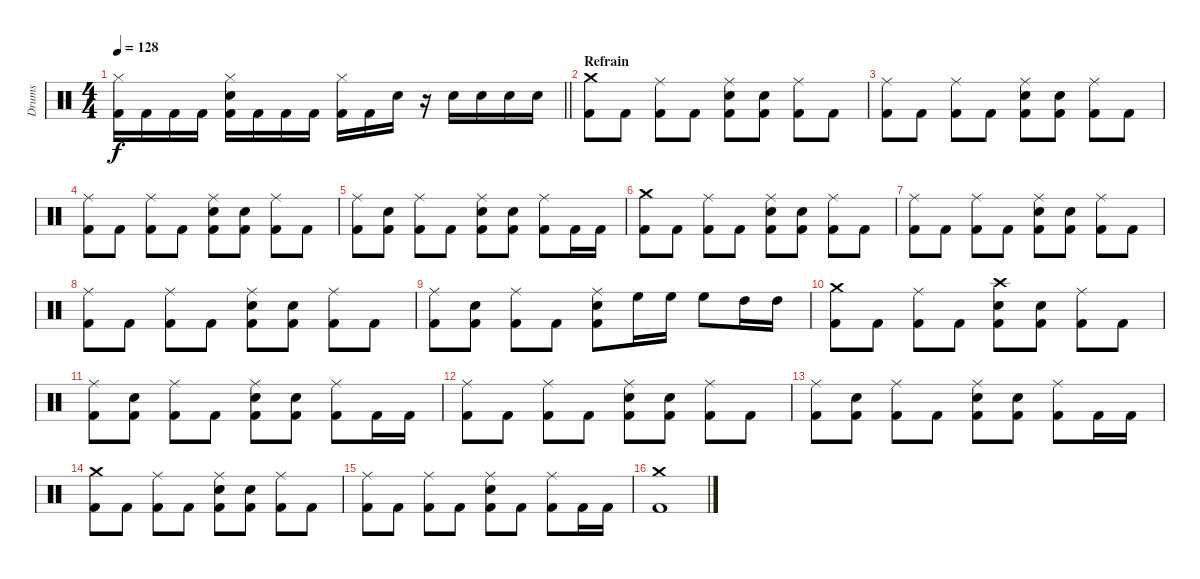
\track ("Drums" "Drums") {instrument percussion}
\staff {score}
\articulation defaults
\ts (4 4)
\tempo 128
\clef neutral
\barLineRight lightlight
\ks c
("Hi-Hat (closed)" "Kick (hit) 2").16{dy f} "Kick (hit) 2".16 "Kick (hit) 2".16 "Kick (hit) 2".16 ("Hi-Hat (closed)" "Snare (hit) 2" "Kick (hit) 2").16 "Kick (hit) 2".16 "Kick (hit) 2".16 "Kick (hit) 2".16 ("Hi-Hat (closed)" "Kick (hit) 2").16 "Kick (hit) 2".16 "Snare (hit) 2".16 r.16 "Snare (hit) 2".16 "Snare (hit) 2".16 "Snare (hit) 2".16 "Snare (hit) 2".16 |
\section ("" "Refrain")
("Crash medium (hit)" "Kick (hit) 2").8 "Kick (hit) 2".8 ("Ride (middle)" "Kick (hit) 2").8 "Kick (hit) 2".8 ("Ride (middle)" "Snare (hit) 2" "Kick (hit) 2").8 ("Snare (hit) 2" "Kick (hit) 2").8 ("Ride (middle)" "Kick (hit) 2").8 "Kick (hit) 2".8 |
("Ride (middle)" "Kick (hit) 2").8 "Kick (hit) 2".8 ("Ride (middle)" "Kick (hit) 2").8 "Kick (hit) 2".8 ("Ride (middle)" "Snare (hit) 2" "Kick (hit) 2").8 ("Snare (hit) 2" "Kick (hit) 2").8 ("Ride (middle)" "Kick (hit) 2").8 "Kick (hit) 2".8 |
("Ride (middle)" "Kick (hit) 2").8 "Kick (hit) 2".8 ("Ride (middle)" "Kick (hit) 2").8 "Kick (hit) 2".8 ("Ride (middle)" "Snare (hit) 2" "Kick (hit) 2").8 ("Snare (hit) 2" "Kick (hit) 2").8 ("Ride (middle)" "Kick (hit) 2").8 "Kick (hit) 2".8 |
("Ride (middle)" "Kick (hit) 2").8 ("Snare (hit) 2" "Kick (hit) 2").8 ("Ride (middle)" "Kick (hit) 2").8 "Kick (hit) 2".8 ("Ride (middle)" "Snare (hit) 2" "Kick (hit) 2").8 ("Snare (hit) 2" "Kick (hit) 2").8 ("Ride (middle)" "Kick (hit) 2").8 "Kick (hit) 2".16 "Kick (hit) 2".16 |
("Crash medium (hit)" "Kick (hit) 2").8 "Kick (hit) 2".8 ("Ride (middle)" "Kick (hit) 2").8 "Kick (hit) 2".8 ("Ride (middle)" "Snare (hit) 2" "Kick (hit) 2").8 ("Snare (hit) 2" "Kick (hit) 2").8 ("Ride (middle)" "Kick (hit) 2").8 "Kick (hit) 2".8 |
("Ride (middle)" "Kick (hit) 2").8 "Kick (hit) 2".8 ("Ride (middle)" "Kick (hit) 2").8 "Kick (hit) 2".8 ("Ride (middle)" "Snare (hit) 2" "Kick (hit) 2").8 ("Snare (hit) 2" "Kick (hit) 2").8 ("Ride (middle)" "Kick (hit) 2").8 "Kick (hit) 2".8 |
("Ride (middle)" "Kick (hit) 2").8 "Kick (hit) 2".8 ("Ride (middle)" "Kick (hit) 2").8 "Kick (hit) 2".8 ("Ride (middle)" "Snare (hit) 2" "Kick (hit) 2").8 ("Snare (hit) 2" "Kick (hit) 2").8 ("Ride (middle)" "Kick (hit) 2").8 "Kick (hit) 2".8 |
("Ride (middle)" "Kick (hit) 2").8 ("Snare (hit) 2" "Kick (hit) 2").8 ("Ride (middle)" "Kick (hit) 2").8 "Kick (hit) 2".8 ("Ride (middle)" "Snare (hit) 2" "Kick (hit) 2").8 "High Floor Tom (hit)".16 "High Floor Tom (hit)".16 "High Floor Tom (hit)".8 "High Tom (hit)".16 "High Tom (hit)".16 |
("Crash medium (hit)" "Kick (hit) 2").8 "Kick (hit) 2".8 ("Ride (middle)" "Kick (hit) 2").8 "Kick (hit) 2".8 ("Crash high (hit)" "Snare (hit) 2" "Kick (hit) 2").8 ("Snare (hit) 2" "Kick (hit) 2").8 ("Ride (middle)" "Kick (hit) 2").8 "Kick (hit) 2".8 |
("Ride (middle)" "Kick (hit) 2").8 ("Snare (hit) 2" "Kick (hit) 2").8 ("Ride (middle)" "Kick (hit) 2").8 "Kick (hit) 2".8 ("Ride (middle)" "Snare (hit) 2" "Kick (hit) 2").8 ("Snare (hit) 2" "Kick (hit) 2").8 ("Ride (middle)" "Kick (hit) 2").8 "Kick (hit) 2".16 "Kick (hit) 2".16 |
("Ride (middle)" "Kick (hit) 2").8 "Kick (hit) 2".8 ("Ride (middle)" "Kick (hit) 2").8 "Kick (hit) 2".8 ("Ride (middle)" "Snare (hit) 2" "Kick (hit) 2").8 ("Snare (hit) 2" "Kick (hit) 2").8 ("Ride (middle)" "Kick (hit) 2").8 "Kick (hit) 2".8 |
("Ride (middle)" "Kick (hit) 2").8 ("Snare (hit) 2" "Kick (hit) 2").8 ("Ride (middle)" "Kick (hit) 2").8 "Kick (hit) 2".8 ("Ride (middle)" "Snare (hit) 2" "Kick (hit) 2").8 ("Snare (hit) 2" "Kick (hit) 2").8 ("Ride (middle)" "Kick (hit) 2").8 "Kick (hit) 2".16 "Kick (hit) 2".16 |
("Crash medium (hit)" "Kick (hit) 2").8 "Kick (hit) 2".8 ("Ride (middle)" "Kick (hit) 2").8 "Kick (hit) 2".8 ("Ride (middle)" "Snare (hit) 2" "Kick (hit) 2").8 ("Snare (hit) 2" "Kick (hit) 2").8 ("Ride (middle)" "Kick (hit) 2").8 "Kick (hit) 2".8 |
("Ride (middle)" "Kick (hit) 2").8 "Kick (hit) 2".8 ("Ride (middle)" "Kick (hit) 2").8 "Kick (hit) 2".8 ("Ride (middle)" "Snare (hit) 2" "Kick (hit) 2").8 "Kick (hit) 2".8 ("Ride (middle)" "Kick (hit) 2").8 "Kick (hit) 2".16 "Kick (hit) 2".16 |
("Crash medium (hit)" "Kick (hit) 2").1
